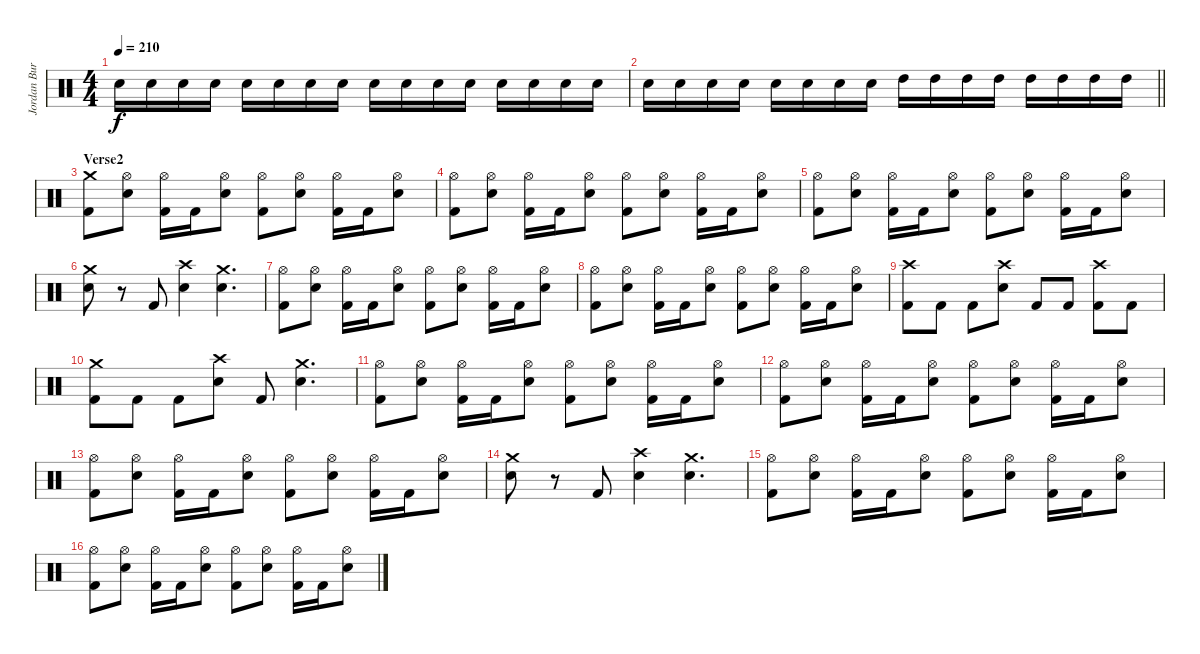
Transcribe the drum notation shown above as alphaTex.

\track ("Jordan Burns" "Jordan Bur") {instrument percussion}
\staff {score}
\articulation defaults
\ts (4 4)
\tempo 210
\clef neutral
\ks c "Electric Snare (hit)".16{dy f} "Electric Snare (hit)".16 "Electric Snare (hit)".16 "Electric Snare (hit)".16 "Electric Snare (hit)".16 "Electric Snare (hit)".16 "Electric Snare (hit)".16 "Electric Snare (hit)".16 "Electric Snare (hit)".16 "Electric Snare (hit)".16 "Electric Snare (hit)".16 "Electric Snare (hit)".16 "Electric Snare (hit)".16 "Electric Snare (hit)".16 "Electric Snare (hit)".16 "Electric Snare (hit)".16
|
\barLineRight lightlight "Electric Snare (hit)".16 "Electric Snare (hit)".16 "Electric Snare (hit)".16 "Electric Snare (hit)".16 "Electric Snare (hit)".16 "Electric Snare (hit)".16 "Electric Snare (hit)".16 "Electric Snare (hit)".16 "High Tom (hit)".16 "High Tom (hit)".16 "High Tom (hit)".16 "High Tom (hit)".16 "High Tom (hit)".16 "High Tom (hit)".16 "High Tom (hit)".16 "High Tom (hit)".16
|
\section ("" "Verse2")
("Crash medium (hit)" "Kick (hit) 2").8 ("Hi-Hat (open)" "Electric Snare (hit)").8 ("Hi-Hat (open)" "Kick (hit) 2").16 "Kick (hit) 2".16 ("Hi-Hat (open)" "Electric Snare (hit)").8 ("Hi-Hat (open)" "Kick (hit) 2").8 ("Hi-Hat (open)" "Electric Snare (hit)").8 ("Hi-Hat (open)" "Kick (hit) 2").16 "Kick (hit) 2".16 ("Hi-Hat (open)" "Electric Snare (hit)").8 |
("Hi-Hat (open)" "Kick (hit) 2").8 ("Hi-Hat (open)" "Electric Snare (hit)").8 ("Hi-Hat (open)" "Kick (hit) 2").16 "Kick (hit) 2".16 ("Hi-Hat (open)" "Electric Snare (hit)").8 ("Hi-Hat (open)" "Kick (hit) 2").8 ("Hi-Hat (open)" "Electric Snare (hit)").8 ("Hi-Hat (open)" "Kick (hit) 2").16 "Kick (hit) 2".16 ("Hi-Hat (open)" "Electric Snare (hit)").8 |
("Hi-Hat (open)" "Kick (hit) 2").8 ("Hi-Hat (open)" "Electric Snare (hit)").8 ("Hi-Hat (open)" "Kick (hit) 2").16 "Kick (hit) 2".16 ("Hi-Hat (open)" "Electric Snare (hit)").8 ("Hi-Hat (open)" "Kick (hit) 2").8 ("Hi-Hat (open)" "Electric Snare (hit)").8 ("Hi-Hat (open)" "Kick (hit) 2").16 "Kick (hit) 2".16 ("Hi-Hat (open)" "Electric Snare (hit)").8 |
("Crash medium (hit)" "Electric Snare (hit)").8 r.8 "Kick (hit) 2".8 ("Crash high (hit)" "Electric Snare (hit)").4 ("Crash medium (hit)" "Electric Snare (hit)").4{d} |
("Hi-Hat (open)" "Kick (hit) 2").8 ("Hi-Hat (open)" "Electric Snare (hit)").8 ("Hi-Hat (open)" "Kick (hit) 2").16 "Kick (hit) 2".16 ("Hi-Hat (open)" "Electric Snare (hit)").8 ("Hi-Hat (open)" "Kick (hit) 2").8 ("Hi-Hat (open)" "Electric Snare (hit)").8 ("Hi-Hat (open)" "Kick (hit) 2").16 "Kick (hit) 2".16 ("Hi-Hat (open)" "Electric Snare (hit)").8 |
("Hi-Hat (open)" "Kick (hit) 2").8 ("Hi-Hat (open)" "Electric Snare (hit)").8 ("Hi-Hat (open)" "Kick (hit) 2").16 "Kick (hit) 2".16 ("Hi-Hat (open)" "Electric Snare (hit)").8 ("Hi-Hat (open)" "Kick (hit) 2").8 ("Hi-Hat (open)" "Electric Snare (hit)").8 ("Hi-Hat (open)" "Kick (hit) 2").16 "Kick (hit) 2".16 ("Hi-Hat (open)" "Electric Snare (hit)").8 |
("Crash high (hit)" "Kick (hit) 2").8 "Kick (hit) 2".8 "Kick (hit) 2".8 ("Crash high (hit)" "Electric Snare (hit)").8 "Kick (hit) 2".8 "Kick (hit) 2".8 ("Crash high (hit)" "Kick (hit) 2").8 "Kick (hit) 2".8 |
("Crash medium (hit)" "Kick (hit) 2").8 "Kick (hit) 2".8 "Kick (hit) 2".8 ("Crash high (hit)" "Electric Snare (hit)").8 "Kick (hit) 2".8 ("Crash medium (hit)" "Electric Snare (hit)").4{d} |
("Hi-Hat (open)" "Kick (hit) 2").8 ("Hi-Hat (open)" "Electric Snare (hit)").8 ("Hi-Hat (open)" "Kick (hit) 2").16 "Kick (hit) 2".16 ("Hi-Hat (open)" "Electric Snare (hit)").8 ("Hi-Hat (open)" "Kick (hit) 2").8 ("Hi-Hat (open)" "Electric Snare (hit)").8 ("Hi-Hat (open)" "Kick (hit) 2").16 "Kick (hit) 2".16 ("Hi-Hat (open)" "Electric Snare (hit)").8 |
("Hi-Hat (open)" "Kick (hit) 2").8 ("Hi-Hat (open)" "Electric Snare (hit)").8 ("Hi-Hat (open)" "Kick (hit) 2").16 "Kick (hit) 2".16 ("Hi-Hat (open)" "Electric Snare (hit)").8 ("Hi-Hat (open)" "Kick (hit) 2").8 ("Hi-Hat (open)" "Electric Snare (hit)").8 ("Hi-Hat (open)" "Kick (hit) 2").16 "Kick (hit) 2".16 ("Hi-Hat (open)" "Electric Snare (hit)").8 |
("Hi-Hat (open)" "Kick (hit) 2").8 ("Hi-Hat (open)" "Electric Snare (hit)").8 ("Hi-Hat (open)" "Kick (hit) 2").16 "Kick (hit) 2".16 ("Hi-Hat (open)" "Electric Snare (hit)").8 ("Hi-Hat (open)" "Kick (hit) 2").8 ("Hi-Hat (open)" "Electric Snare (hit)").8 ("Hi-Hat (open)" "Kick (hit) 2").16 "Kick (hit) 2".16 ("Hi-Hat (open)" "Electric Snare (hit)").8 |
("Crash medium (hit)" "Electric Snare (hit)").8 r.8 "Kick (hit) 2".8 ("Crash high (hit)" "Electric Snare (hit)").4 ("Crash medium (hit)" "Electric Snare (hit)").4{d} |
("Hi-Hat (open)" "Kick (hit) 2").8 ("Hi-Hat (open)" "Electric Snare (hit)").8 ("Hi-Hat (open)" "Kick (hit) 2").16 "Kick (hit) 2".16 ("Hi-Hat (open)" "Electric Snare (hit)").8 ("Hi-Hat (open)" "Kick (hit) 2").8 ("Hi-Hat (open)" "Electric Snare (hit)").8 ("Hi-Hat (open)" "Kick (hit) 2").16 "Kick (hit) 2".16 ("Hi-Hat (open)" "Electric Snare (hit)").8 |
("Hi-Hat (open)" "Kick (hit) 2").8 ("Hi-Hat (open)" "Electric Snare (hit)").8 ("Hi-Hat (open)" "Kick (hit) 2").16 "Kick (hit) 2".16 ("Hi-Hat (open)" "Electric Snare (hit)").8 ("Hi-Hat (open)" "Kick (hit) 2").8 ("Hi-Hat (open)" "Electric Snare (hit)").8 ("Hi-Hat (open)" "Kick (hit) 2").16 "Kick (hit) 2".16 ("Hi-Hat (open)" "Electric Snare (hit)").8
